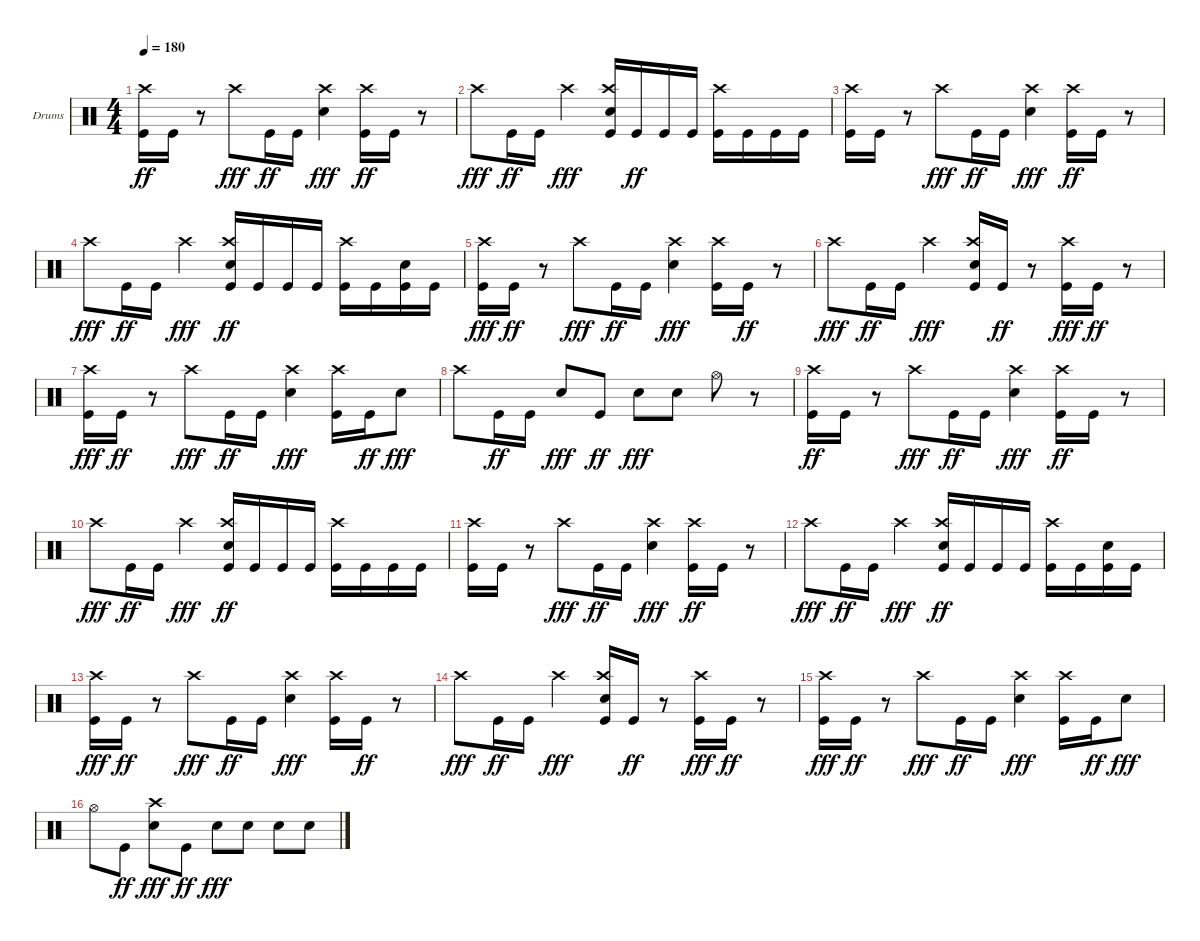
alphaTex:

\bracketExtendMode groupsimilarinstruments
\firstSystemTrackNameOrientation horizontal
\otherSystemsTrackNameOrientation horizontal
\track ("Drumkit" "Drums") {instrument percussion}
\staff {score}
\articulation defaults
\ts (4 4)
\tempo 180
\clef neutral
\ks c
("Kick (hit)" "Crash high (hit)").16{dy ff} "Kick (hit)".16 r.8 "Crash high (hit)".8{dy fff} "Kick (hit)".16{dy ff} "Kick (hit)".16 ("Snare (hit) 2" "Crash high (hit)").4{dy fff} ("Kick (hit)" "Crash high (hit)").16{dy ff} "Kick (hit)".16 r.8 |
"Crash high (hit)".8{dy fff} "Kick (hit)".16{dy ff} "Kick (hit)".16 "Crash high (hit)".4{dy fff} ("Snare (hit) 2" "Kick (hit)" "Crash high (hit)").16 "Kick (hit)".16{dy ff} "Kick (hit)".16 "Kick (hit)".16 ("Kick (hit)" "Crash high (hit)").16 "Kick (hit)".16 "Kick (hit)".16 "Kick (hit)".16 |
("Kick (hit)" "Crash high (hit)").16 "Kick (hit)".16 r.8 "Crash high (hit)".8{dy fff} "Kick (hit)".16{dy ff} "Kick (hit)".16 ("Snare (hit) 2" "Crash high (hit)").4{dy fff} ("Kick (hit)" "Crash high (hit)").16{dy ff} "Kick (hit)".16 r.8 |
"Crash high (hit)".8{dy fff} "Kick (hit)".16{dy ff} "Kick (hit)".16 "Crash high (hit)".4{dy fff} ("Kick (hit)" "Snare (hit) 2" "Crash high (hit)").16{dy ff} "Kick (hit)".16 "Kick (hit)".16 "Kick (hit)".16 ("Kick (hit)" "Crash high (hit)").16 "Kick (hit)".16 ("Kick (hit)" "Snare (hit) 2").16 "Kick (hit)".16 |
("Crash high (hit)" "Kick (hit)").16{dy fff} "Kick (hit)".16{dy ff} r.8 "Crash high (hit)".8{dy fff} "Kick (hit)".16{dy ff} "Kick (hit)".16 ("Crash high (hit)" "Snare (hit) 2").4{dy fff} ("Crash high (hit)" "Kick (hit)").16 "Kick (hit)".16{dy ff} r.8 |
"Crash high (hit)".8{dy fff} "Kick (hit)".16{dy ff} "Kick (hit)".16 "Crash high (hit)".4{dy fff} ("Crash high (hit)" "Snare (hit) 2" "Kick (hit)").16 "Kick (hit)".16{dy ff} r.8 ("Crash high (hit)" "Kick (hit)").16{dy fff} "Kick (hit)".16{dy ff} r.8 |
("Crash high (hit)" "Kick (hit)").16{dy fff} "Kick (hit)".16{dy ff} r.8 "Crash high (hit)".8{dy fff} "Kick (hit)".16{dy ff} "Kick (hit)".16 ("Crash high (hit)" "Snare (hit) 2").4{dy fff} ("Crash high (hit)" "Kick (hit)").16 "Kick (hit)".16{dy ff} "Snare (hit) 2".8{dy fff} |
"Crash high (hit)".8 "Kick (hit)".16{dy ff} "Kick (hit)".16 "Snare (hit) 2".8{dy fff} "Kick (hit)".8{dy ff} "Snare (hit) 2".8{dy fff} "Snare (hit) 2".8 "Hi-Hat (open)".8 r.8 |
("Kick (hit)" "Crash high (hit)").16{dy ff} "Kick (hit)".16 r.8 "Crash high (hit)".8{dy fff} "Kick (hit)".16{dy ff} "Kick (hit)".16 ("Snare (hit) 2" "Crash high (hit)").4{dy fff} ("Kick (hit)" "Crash high (hit)").16{dy ff} "Kick (hit)".16 r.8 |
"Crash high (hit)".8{dy fff} "Kick (hit)".16{dy ff} "Kick (hit)".16 "Crash high (hit)".4{dy fff} ("Kick (hit)" "Snare (hit) 2" "Crash high (hit)").16{dy ff} "Kick (hit)".16 "Kick (hit)".16 "Kick (hit)".16 ("Kick (hit)" "Crash high (hit)").16 "Kick (hit)".16 "Kick (hit)".16 "Kick (hit)".16 |
("Kick (hit)" "Crash high (hit)").16 "Kick (hit)".16 r.8 "Crash high (hit)".8{dy fff} "Kick (hit)".16{dy ff} "Kick (hit)".16 ("Snare (hit) 2" "Crash high (hit)").4{dy fff} ("Kick (hit)" "Crash high (hit)").16{dy ff} "Kick (hit)".16 r.8 |
"Crash high (hit)".8{dy fff} "Kick (hit)".16{dy ff} "Kick (hit)".16 "Crash high (hit)".4{dy fff} ("Kick (hit)" "Snare (hit) 2" "Crash high (hit)").16{dy ff} "Kick (hit)".16 "Kick (hit)".16 "Kick (hit)".16 ("Kick (hit)" "Crash high (hit)").16 "Kick (hit)".16 ("Kick (hit)" "Snare (hit) 2").16 "Kick (hit)".16 |
("Crash high (hit)" "Kick (hit)").16{dy fff} "Kick (hit)".16{dy ff} r.8 "Crash high (hit)".8{dy fff} "Kick (hit)".16{dy ff} "Kick (hit)".16 ("Crash high (hit)" "Snare (hit) 2").4{dy fff} ("Crash high (hit)" "Kick (hit)").16 "Kick (hit)".16{dy ff} r.8 |
"Crash high (hit)".8{dy fff} "Kick (hit)".16{dy ff} "Kick (hit)".16 "Crash high (hit)".4{dy fff} ("Crash high (hit)" "Snare (hit) 2" "Kick (hit)").16 "Kick (hit)".16{dy ff} r.8 ("Crash high (hit)" "Kick (hit)").16{dy fff} "Kick (hit)".16{dy ff} r.8 |
("Crash high (hit)" "Kick (hit)").16{dy fff} "Kick (hit)".16{dy ff} r.8 "Crash high (hit)".8{dy fff} "Kick (hit)".16{dy ff} "Kick (hit)".16 ("Crash high (hit)" "Snare (hit) 2").4{dy fff} ("Crash high (hit)" "Kick (hit)").16 "Kick (hit)".16{dy ff} "Snare (hit) 2".8{dy fff} |
"Hi-Hat (open)".8 "Kick (hit)".8{dy ff} ("Crash high (hit)" "Snare (hit) 2").8{dy fff} "Kick (hit)".8{dy ff} "Snare (hit) 2".8{dy fff} "Snare (hit) 2".8 "Snare (hit) 2".8 "Snare (hit) 2".8
